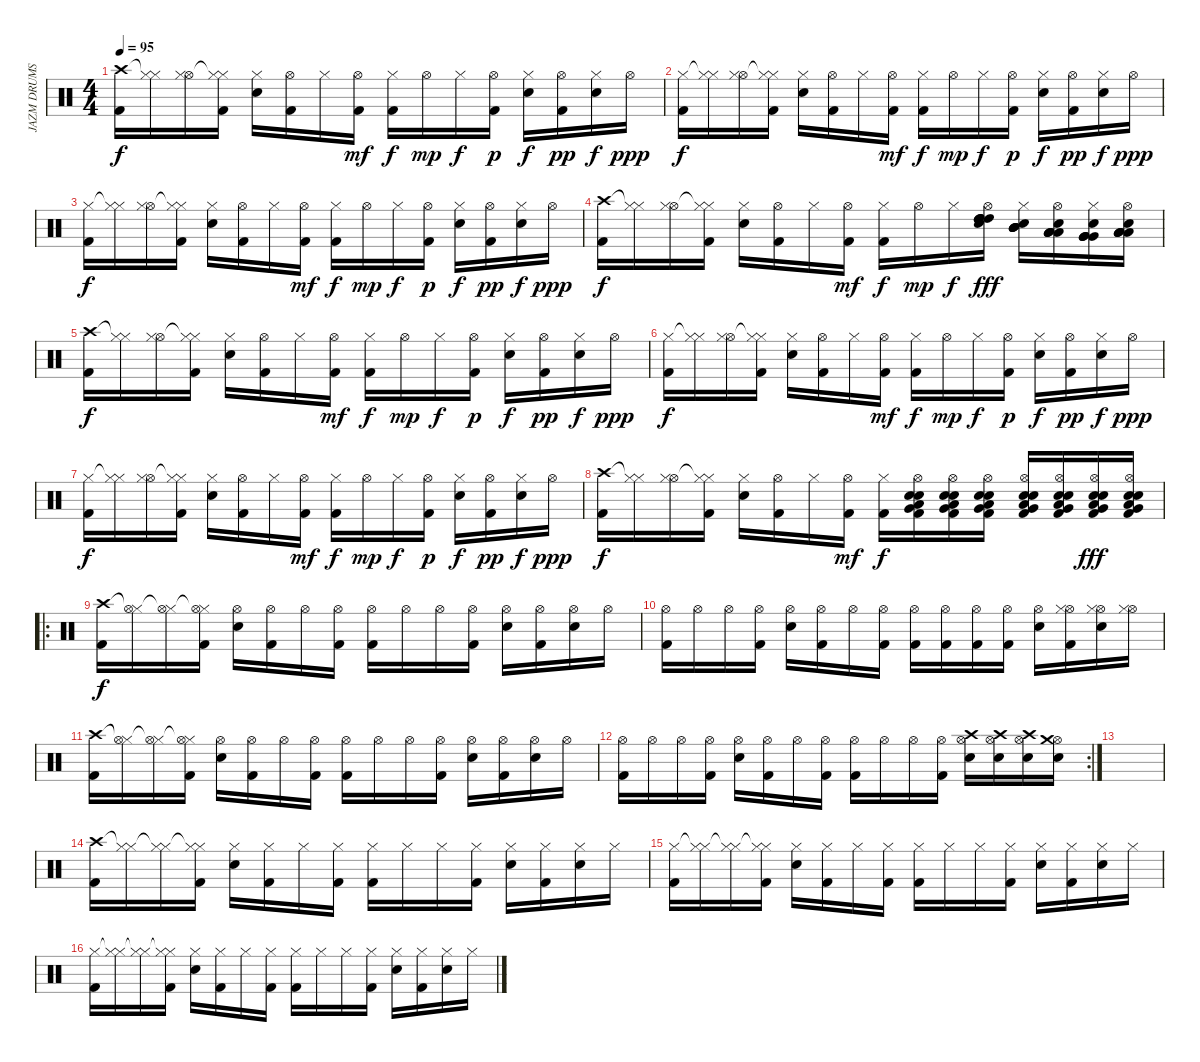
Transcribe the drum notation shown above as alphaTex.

\track ("JAZM DRUMS" "JAZM DRUMS") {instrument percussion}
\staff {score}
\articulation defaults
\ts (4 4)
\tempo 95
\clef neutral
\ks c
("Crash high (hit)" "Kick (hit) 2").16{dy f} ("Hi-Hat (closed)"{t} "Hi-Hat (closed)").16 ("Hi-Hat (open)" "Hi-Hat (closed)").16 ("Hi-Hat (closed)"{t} "Hi-Hat (closed)" "Kick (hit) 2").16 ("Hi-Hat (closed)" "Electric Snare (hit)").16 ("Hi-Hat (open)" "Kick (hit) 2").16 "Hi-Hat (closed)".16 ("Hi-Hat (open)" "Kick (hit) 2").16{dy mf} ("Hi-Hat (closed)" "Kick (hit) 2").16{dy f} "Hi-Hat (open)".16{dy mp} "Hi-Hat (closed)".16{dy f} ("Hi-Hat (open)" "Kick (hit) 2").16{dy p} ("Hi-Hat (closed)" "Electric Snare (hit)").16{dy f} ("Hi-Hat (open)" "Kick (hit) 2").16{dy pp} ("Hi-Hat (closed)" "Electric Snare (hit)").16{dy f} "Hi-Hat (open)".16{dy ppp} |
("Hi-Hat (closed)" "Kick (hit) 2").16{dy f} ("Hi-Hat (closed)"{t} "Hi-Hat (closed)").16 ("Hi-Hat (open)" "Hi-Hat (closed)").16 ("Hi-Hat (closed)"{t} "Hi-Hat (closed)" "Kick (hit) 2").16 ("Hi-Hat (closed)" "Electric Snare (hit)").16 ("Hi-Hat (open)" "Kick (hit) 2").16 "Hi-Hat (closed)".16 ("Hi-Hat (open)" "Kick (hit) 2").16{dy mf} ("Hi-Hat (closed)" "Kick (hit) 2").16{dy f} "Hi-Hat (open)".16{dy mp} "Hi-Hat (closed)".16{dy f} ("Hi-Hat (open)" "Kick (hit) 2").16{dy p} ("Hi-Hat (closed)" "Electric Snare (hit)").16{dy f} ("Hi-Hat (open)" "Kick (hit) 2").16{dy pp} ("Hi-Hat (closed)" "Electric Snare (hit)").16{dy f} "Hi-Hat (open)".16{dy ppp} |
("Hi-Hat (closed)" "Kick (hit) 2").16{dy f} ("Hi-Hat (closed)"{t} "Hi-Hat (closed)").16 ("Hi-Hat (open)" "Hi-Hat (closed)").16 ("Hi-Hat (closed)"{t} "Hi-Hat (closed)" "Kick (hit) 2").16 ("Hi-Hat (closed)" "Electric Snare (hit)").16 ("Hi-Hat (open)" "Kick (hit) 2").16 "Hi-Hat (closed)".16 ("Hi-Hat (open)" "Kick (hit) 2").16{dy mf} ("Hi-Hat (closed)" "Kick (hit) 2").16{dy f} "Hi-Hat (open)".16{dy mp} "Hi-Hat (closed)".16{dy f} ("Hi-Hat (open)" "Kick (hit) 2").16{dy p} ("Hi-Hat (closed)" "Electric Snare (hit)").16{dy f} ("Hi-Hat (open)" "Kick (hit) 2").16{dy pp} ("Hi-Hat (closed)" "Electric Snare (hit)").16{dy f} "Hi-Hat (open)".16{dy ppp} |
("Crash high (hit)" "Kick (hit) 2").16{dy f} ("Hi-Hat (closed)"{t} "Hi-Hat (closed)").16 ("Hi-Hat (open)" "Hi-Hat (closed)").16 ("Hi-Hat (closed)"{t} "Hi-Hat (closed)" "Kick (hit) 2").16 ("Hi-Hat (closed)" "Electric Snare (hit)").16 ("Hi-Hat (open)" "Kick (hit) 2").16 "Hi-Hat (closed)".16 ("Hi-Hat (open)" "Kick (hit) 2").16{dy mf} ("Hi-Hat (closed)" "Kick (hit) 2").16{dy f} "Hi-Hat (open)".16{dy mp} "Hi-Hat (closed)".16{dy f} ("Hi-Hat (open)" "High Tom (hit)" "High Tom (hit)" "High Tom (hit)" "High Tom (hit)" "Electric Snare (hit)").16{dy fff} ("Hi-Hat (closed)" "Mid Tom (hit)" "Mid Tom (hit)" "Mid Tom (hit)" "Mid Tom (hit)" "Electric Snare (hit)").16 ("Hi-Hat (open)" "Low Tom (hit)" "Low Tom (hit)" "Low Tom (hit)" "Low Tom (hit)" "Electric Snare (hit)").16 ("Hi-Hat (closed)" "Very Low Tom (hit)" "Very Low Tom (hit)" "Very Low Tom (hit)" "Very Low Tom (hit)" "Electric Snare (hit)").16 ("Hi-Hat (open)" "Low Floor Tom (hit)" "Low Floor Tom (hit)" "Low Floor Tom (hit)" "Low Floor Tom (hit)" "Electric Snare (hit)").16 |
("Crash high (hit)" "Kick (hit) 2").16{dy f} ("Hi-Hat (closed)"{t} "Hi-Hat (closed)").16 ("Hi-Hat (open)" "Hi-Hat (closed)").16 ("Hi-Hat (closed)"{t} "Hi-Hat (closed)" "Kick (hit) 2").16 ("Hi-Hat (closed)" "Electric Snare (hit)").16 ("Hi-Hat (open)" "Kick (hit) 2").16 "Hi-Hat (closed)".16 ("Hi-Hat (open)" "Kick (hit) 2").16{dy mf} ("Hi-Hat (closed)" "Kick (hit) 2").16{dy f} "Hi-Hat (open)".16{dy mp} "Hi-Hat (closed)".16{dy f} ("Hi-Hat (open)" "Kick (hit) 2").16{dy p} ("Hi-Hat (closed)" "Electric Snare (hit)").16{dy f} ("Hi-Hat (open)" "Kick (hit) 2").16{dy pp} ("Hi-Hat (closed)" "Electric Snare (hit)").16{dy f} "Hi-Hat (open)".16{dy ppp} |
("Hi-Hat (closed)" "Kick (hit) 2").16{dy f} ("Hi-Hat (closed)"{t} "Hi-Hat (closed)").16 ("Hi-Hat (open)" "Hi-Hat (closed)").16 ("Hi-Hat (closed)"{t} "Hi-Hat (closed)" "Kick (hit) 2").16 ("Hi-Hat (closed)" "Electric Snare (hit)").16 ("Hi-Hat (open)" "Kick (hit) 2").16 "Hi-Hat (closed)".16 ("Hi-Hat (open)" "Kick (hit) 2").16{dy mf} ("Hi-Hat (closed)" "Kick (hit) 2").16{dy f} "Hi-Hat (open)".16{dy mp} "Hi-Hat (closed)".16{dy f} ("Hi-Hat (open)" "Kick (hit) 2").16{dy p} ("Hi-Hat (closed)" "Electric Snare (hit)").16{dy f} ("Hi-Hat (open)" "Kick (hit) 2").16{dy pp} ("Hi-Hat (closed)" "Electric Snare (hit)").16{dy f} "Hi-Hat (open)".16{dy ppp} |
("Hi-Hat (closed)" "Kick (hit) 2").16{dy f} ("Hi-Hat (closed)"{t} "Hi-Hat (closed)").16 ("Hi-Hat (open)" "Hi-Hat (closed)").16 ("Hi-Hat (closed)"{t} "Hi-Hat (closed)" "Kick (hit) 2").16 ("Hi-Hat (closed)" "Electric Snare (hit)").16 ("Hi-Hat (open)" "Kick (hit) 2").16 "Hi-Hat (closed)".16 ("Hi-Hat (open)" "Kick (hit) 2").16{dy mf} ("Hi-Hat (closed)" "Kick (hit) 2").16{dy f} "Hi-Hat (open)".16{dy mp} "Hi-Hat (closed)".16{dy f} ("Hi-Hat (open)" "Kick (hit) 2").16{dy p} ("Hi-Hat (closed)" "Electric Snare (hit)").16{dy f} ("Hi-Hat (open)" "Kick (hit) 2").16{dy pp} ("Hi-Hat (closed)" "Electric Snare (hit)").16{dy f} "Hi-Hat (open)".16{dy ppp} |
("Crash high (hit)" "Kick (hit) 2").16{dy f} ("Hi-Hat (closed)"{t} "Hi-Hat (closed)").16 ("Hi-Hat (open)" "Hi-Hat (closed)").16 ("Hi-Hat (closed)"{t} "Hi-Hat (closed)" "Kick (hit) 2").16 ("Hi-Hat (closed)" "Electric Snare (hit)").16 ("Hi-Hat (open)" "Kick (hit) 2").16 "Hi-Hat (closed)".16 ("Hi-Hat (open)" "Kick (hit) 2").16{dy mf} ("Hi-Hat (closed)" "Kick (hit) 2").16{dy f} ("Hi-Hat (open)" "Very Low Tom (hit)" "Low Floor Tom (hit)" "Kick (hit) 2" "Electric Snare (hit)" "Electric Snare (hit)").16 ("Hi-Hat (open)" "Very Low Tom (hit)" "Low Floor Tom (hit)" "Kick (hit) 2" "Electric Snare (hit)" "Electric Snare (hit)").16 ("Hi-Hat (open)" "Very Low Tom (hit)" "Low Floor Tom (hit)" "Kick (hit) 2" "Electric Snare (hit)" "Electric Snare (hit)").16 ("Hi-Hat (open)" "Very Low Tom (hit)" "Low Floor Tom (hit)" "Kick (hit) 2" "Electric Snare (hit)" "Electric Snare (hit)").16 ("Hi-Hat (open)" "Very Low Tom (hit)" "Low Floor Tom (hit)" "Kick (hit) 2" "Electric Snare (hit)" "Electric Snare (hit)").16 ("Hi-Hat (open)" "Very Low Tom (hit)" "Low Floor Tom (hit)" "Kick (hit) 2" "Electric Snare (hit)" "Electric Snare (hit)").16{dy fff} ("Hi-Hat (open)" "Very Low Tom (hit)" "Low Floor Tom (hit)" "Kick (hit) 2" "Electric Snare (hit)" "Electric Snare (hit)").16 |
\ro
("Crash high (hit)" "Kick (hit) 2").16{dy f} ("Hi-Hat (closed)"{t} "Hi-Hat (open)").16 ("Hi-Hat (closed)"{t} "Hi-Hat (open)").16 ("Hi-Hat (closed)"{t} "Hi-Hat (open)" "Kick (hit) 2").16 ("Hi-Hat (open)" "Electric Snare (hit)").16 ("Hi-Hat (open)" "Kick (hit) 2").16 "Hi-Hat (open)".16 ("Hi-Hat (open)" "Kick (hit) 2").16 ("Hi-Hat (open)" "Kick (hit) 2").16 "Hi-Hat (open)".16 "Hi-Hat (open)".16 ("Hi-Hat (open)" "Kick (hit) 2").16 ("Hi-Hat (open)" "Electric Snare (hit)").16 ("Hi-Hat (open)" "Kick (hit) 2").16 ("Hi-Hat (open)" "Electric Snare (hit)").16 "Hi-Hat (open)".16 |
("Hi-Hat (open)" "Kick (hit) 2").16 "Hi-Hat (open)".16 "Hi-Hat (open)".16 ("Hi-Hat (open)" "Kick (hit) 2").16 ("Hi-Hat (open)" "Electric Snare (hit)").16 ("Hi-Hat (open)" "Kick (hit) 2").16 "Hi-Hat (open)".16 ("Hi-Hat (open)" "Kick (hit) 2").16 ("Hi-Hat (open)" "Kick (hit) 2").16 ("Hi-Hat (open)" "Kick (hit) 2").16 ("Hi-Hat (open)" "Kick (hit) 2").16 ("Hi-Hat (open)" "Kick (hit) 2").16 ("Hi-Hat (open)" "Electric Snare (hit)").16 ("Hi-Hat (open)" "Hi-Hat (closed)" "Kick (hit) 2").16 ("Hi-Hat (open)" "Hi-Hat (closed)" "Electric Snare (hit)").16 ("Hi-Hat (open)" "Hi-Hat (closed)").16 |
("Crash high (hit)" "Kick (hit) 2").16 ("Hi-Hat (closed)"{t} "Hi-Hat (open)").16 ("Hi-Hat (closed)"{t} "Hi-Hat (open)").16 ("Hi-Hat (closed)"{t} "Hi-Hat (open)" "Kick (hit) 2").16 ("Hi-Hat (open)" "Electric Snare (hit)").16 ("Hi-Hat (open)" "Kick (hit) 2").16 "Hi-Hat (open)".16 ("Hi-Hat (open)" "Kick (hit) 2").16 ("Hi-Hat (open)" "Kick (hit) 2").16 "Hi-Hat (open)".16 "Hi-Hat (open)".16 ("Hi-Hat (open)" "Kick (hit) 2").16 ("Hi-Hat (open)" "Electric Snare (hit)").16 ("Hi-Hat (open)" "Kick (hit) 2").16 ("Hi-Hat (open)" "Electric Snare (hit)").16 "Hi-Hat (open)".16 |
\rc 2
("Hi-Hat (open)" "Kick (hit) 2").16 "Hi-Hat (open)".16 "Hi-Hat (open)".16 ("Hi-Hat (open)" "Kick (hit) 2").16 ("Hi-Hat (open)" "Electric Snare (hit)").16 ("Hi-Hat (open)" "Kick (hit) 2").16 "Hi-Hat (open)".16 ("Hi-Hat (open)" "Kick (hit) 2").16 ("Hi-Hat (open)" "Kick (hit) 2").16 "Hi-Hat (open)".16 "Hi-Hat (open)".16 ("Hi-Hat (open)" "Kick (hit) 2").16 ("Hi-Hat (open)" "Crash high (hit)" "Electric Snare (hit)").16 ("Hi-Hat (open)" "Crash high (hit)" "Electric Snare (hit)").16 ("Hi-Hat (open)" "Crash high (hit)" "Electric Snare (hit)").16 ("Hi-Hat (open)" "Crash medium (hit)" "Electric Snare (hit)").16 |
|
("Crash high (hit)" "Kick (hit) 2").16 ("Hi-Hat (closed)"{t} "Hi-Hat (closed)").16 ("Hi-Hat (closed)"{t} "Hi-Hat (closed)").16 ("Hi-Hat (closed)"{t} "Hi-Hat (closed)" "Kick (hit) 2").16 ("Hi-Hat (closed)" "Electric Snare (hit)").16 ("Hi-Hat (closed)" "Kick (hit) 2").16 "Hi-Hat (closed)".16 ("Hi-Hat (closed)" "Kick (hit) 2").16 ("Hi-Hat (closed)" "Kick (hit) 2").16 "Hi-Hat (closed)".16 "Hi-Hat (closed)".16 ("Hi-Hat (closed)" "Kick (hit) 2").16 ("Hi-Hat (closed)" "Electric Snare (hit)").16 ("Hi-Hat (closed)" "Kick (hit) 2").16 ("Hi-Hat (closed)" "Electric Snare (hit)").16 "Hi-Hat (closed)".16 |
("Hi-Hat (closed)" "Kick (hit) 2").16 ("Hi-Hat (closed)"{t} "Hi-Hat (closed)").16 ("Hi-Hat (closed)"{t} "Hi-Hat (closed)").16 ("Hi-Hat (closed)"{t} "Hi-Hat (closed)" "Kick (hit) 2").16 ("Hi-Hat (closed)" "Electric Snare (hit)").16 ("Hi-Hat (closed)" "Kick (hit) 2").16 "Hi-Hat (closed)".16 ("Hi-Hat (closed)" "Kick (hit) 2").16 ("Hi-Hat (closed)" "Kick (hit) 2").16 "Hi-Hat (closed)".16 "Hi-Hat (closed)".16 ("Hi-Hat (closed)" "Kick (hit) 2").16 ("Hi-Hat (closed)" "Electric Snare (hit)").16 ("Hi-Hat (closed)" "Kick (hit) 2").16 ("Hi-Hat (closed)" "Electric Snare (hit)").16 "Hi-Hat (closed)".16 |
("Hi-Hat (closed)" "Kick (hit) 2").16 ("Hi-Hat (closed)"{t} "Hi-Hat (closed)").16 ("Hi-Hat (closed)"{t} "Hi-Hat (closed)").16 ("Hi-Hat (closed)"{t} "Hi-Hat (closed)" "Kick (hit) 2").16 ("Hi-Hat (closed)" "Electric Snare (hit)").16 ("Hi-Hat (closed)" "Kick (hit) 2").16 "Hi-Hat (closed)".16 ("Hi-Hat (closed)" "Kick (hit) 2").16 ("Hi-Hat (closed)" "Kick (hit) 2").16 "Hi-Hat (closed)".16 "Hi-Hat (closed)".16 ("Hi-Hat (closed)" "Kick (hit) 2").16 ("Hi-Hat (closed)" "Electric Snare (hit)").16 ("Hi-Hat (closed)" "Kick (hit) 2").16 ("Hi-Hat (closed)" "Electric Snare (hit)").16 "Hi-Hat (closed)".16
